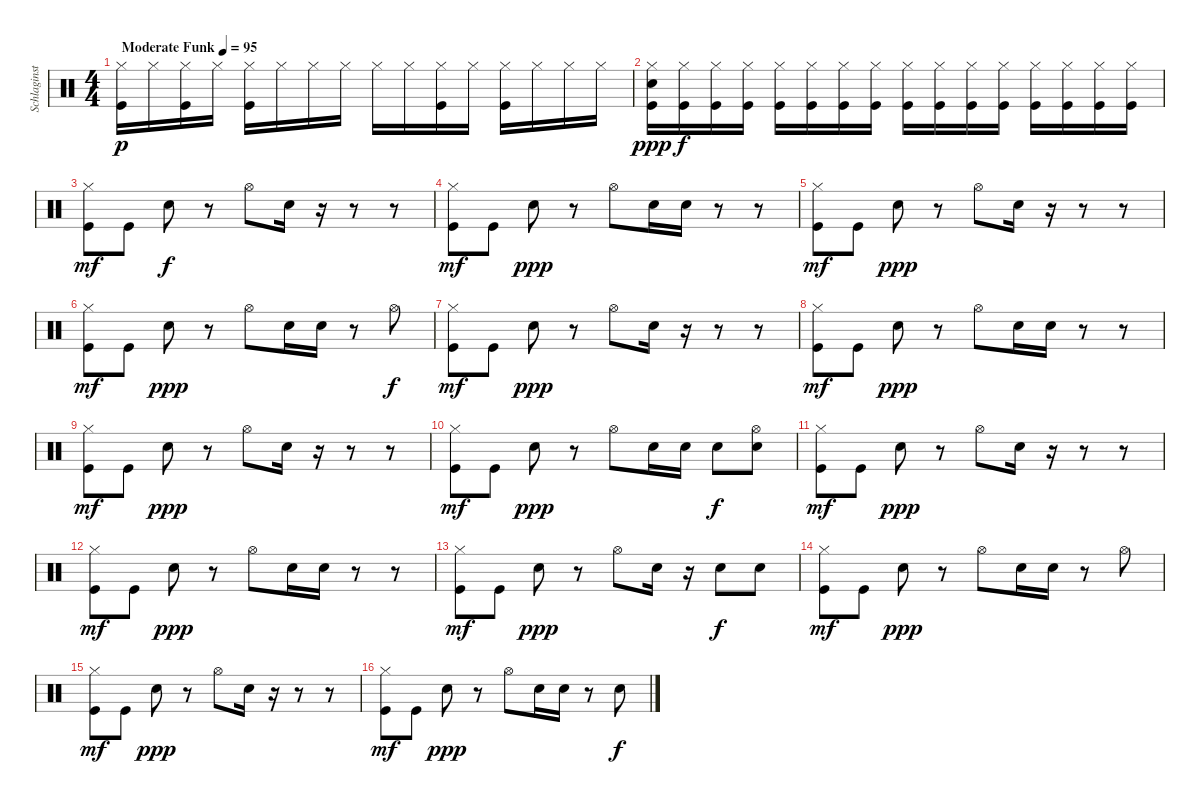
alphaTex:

\track ("Schlaginstrumente - Auswahl" "Schlaginst") {instrument percussion}
\staff {score}
\articulation defaults
\ts (4 4)
\tempo (95 "Moderate Funk")
\clef neutral
\ks c
("Hi-Hat (closed)" "Kick (hit)").16{dy p} "Hi-Hat (closed)".16 ("Hi-Hat (closed)" "Kick (hit)").16 "Hi-Hat (closed)".16 ("Hi-Hat (closed)" "Kick (hit)").16 "Hi-Hat (closed)".16 "Hi-Hat (closed)".16 "Hi-Hat (closed)".16 "Hi-Hat (closed)".16 "Hi-Hat (closed)".16 ("Hi-Hat (closed)" "Kick (hit)").16 "Hi-Hat (closed)".16 ("Hi-Hat (closed)" "Kick (hit)").16 "Hi-Hat (closed)".16 "Hi-Hat (closed)".16 "Hi-Hat (closed)".16 |
("Hi-Hat (closed)" "Kick (hit)" "Snare (hit) 2").16{dy ppp} ("Hi-Hat (closed)" "Kick (hit)").16{dy f} ("Hi-Hat (closed)" "Kick (hit)").16 ("Hi-Hat (closed)" "Kick (hit)").16 ("Hi-Hat (closed)" "Kick (hit)").16 ("Hi-Hat (closed)" "Kick (hit)").16 ("Hi-Hat (closed)" "Kick (hit)").16 ("Hi-Hat (closed)" "Kick (hit)").16 ("Hi-Hat (closed)" "Kick (hit)").16 ("Hi-Hat (closed)" "Kick (hit)").16 ("Hi-Hat (closed)" "Kick (hit)").16 ("Hi-Hat (closed)" "Kick (hit)").16 ("Hi-Hat (closed)" "Kick (hit)").16 ("Hi-Hat (closed)" "Kick (hit)").16 ("Hi-Hat (closed)" "Kick (hit)").16 ("Hi-Hat (closed)" "Kick (hit)").16 |
("Hi-Hat (closed)" "Kick (hit)").8{dy mf} "Kick (hit)".8 "Snare (hit) 2".8{dy f} r.8 "Hi-Hat (open)".8 "Snare (hit) 2".16 r.16 r.8 r.8 |
("Hi-Hat (closed)" "Kick (hit)").8{dy mf} "Kick (hit)".8 "Snare (hit) 2".8{dy ppp} r.8 "Hi-Hat (open)".8 "Snare (hit) 2".16 "Snare (hit) 2".16 r.8 r.8 |
("Hi-Hat (closed)" "Kick (hit)").8{dy mf} "Kick (hit)".8 "Snare (hit) 2".8{dy ppp} r.8 "Hi-Hat (open)".8 "Snare (hit) 2".16 r.16 r.8 r.8 |
("Hi-Hat (closed)" "Kick (hit)").8{dy mf} "Kick (hit)".8 "Snare (hit) 2".8{dy ppp} r.8 "Hi-Hat (open)".8 "Snare (hit) 2".16 "Snare (hit) 2".16 r.8 "Hi-Hat (open)".8{dy f} |
("Hi-Hat (closed)" "Kick (hit)").8{dy mf} "Kick (hit)".8 "Snare (hit) 2".8{dy ppp} r.8 "Hi-Hat (open)".8 "Snare (hit) 2".16 r.16 r.8 r.8 |
("Hi-Hat (closed)" "Kick (hit)").8{dy mf} "Kick (hit)".8 "Snare (hit) 2".8{dy ppp} r.8 "Hi-Hat (open)".8 "Snare (hit) 2".16 "Snare (hit) 2".16 r.8 r.8 |
("Hi-Hat (closed)" "Kick (hit)").8{dy mf} "Kick (hit)".8 "Snare (hit) 2".8{dy ppp} r.8 "Hi-Hat (open)".8 "Snare (hit) 2".16 r.16 r.8 r.8 |
("Hi-Hat (closed)" "Kick (hit)").8{dy mf} "Kick (hit)".8 "Snare (hit) 2".8{dy ppp} r.8 "Hi-Hat (open)".8 "Snare (hit) 2".16 "Snare (hit) 2".16 "Snare (hit) 2".8{dy f} ("Hi-Hat (open)" "Snare (hit) 2").8 |
("Hi-Hat (closed)" "Kick (hit)").8{dy mf} "Kick (hit)".8 "Snare (hit) 2".8{dy ppp} r.8 "Hi-Hat (open)".8 "Snare (hit) 2".16 r.16 r.8 r.8 |
("Hi-Hat (closed)" "Kick (hit)").8{dy mf} "Kick (hit)".8 "Snare (hit) 2".8{dy ppp} r.8 "Hi-Hat (open)".8 "Snare (hit) 2".16 "Snare (hit) 2".16 r.8 r.8 |
("Hi-Hat (closed)" "Kick (hit)").8{dy mf} "Kick (hit)".8 "Snare (hit) 2".8{dy ppp} r.8 "Hi-Hat (open)".8 "Snare (hit) 2".16 r.16 "Snare (hit) 2".8{dy f} "Snare (hit) 2".8 |
("Hi-Hat (closed)" "Kick (hit)").8{dy mf} "Kick (hit)".8 "Snare (hit) 2".8{dy ppp} r.8 "Hi-Hat (open)".8 "Snare (hit) 2".16 "Snare (hit) 2".16 r.8 "Hi-Hat (open)".8 |
("Hi-Hat (closed)" "Kick (hit)").8{dy mf} "Kick (hit)".8 "Snare (hit) 2".8{dy ppp} r.8 "Hi-Hat (open)".8 "Snare (hit) 2".16 r.16 r.8 r.8 |
("Hi-Hat (closed)" "Kick (hit)").8{dy mf} "Kick (hit)".8 "Snare (hit) 2".8{dy ppp} r.8 "Hi-Hat (open)".8 "Snare (hit) 2".16 "Snare (hit) 2".16 r.8 "Snare (hit) 2".8{dy f}
